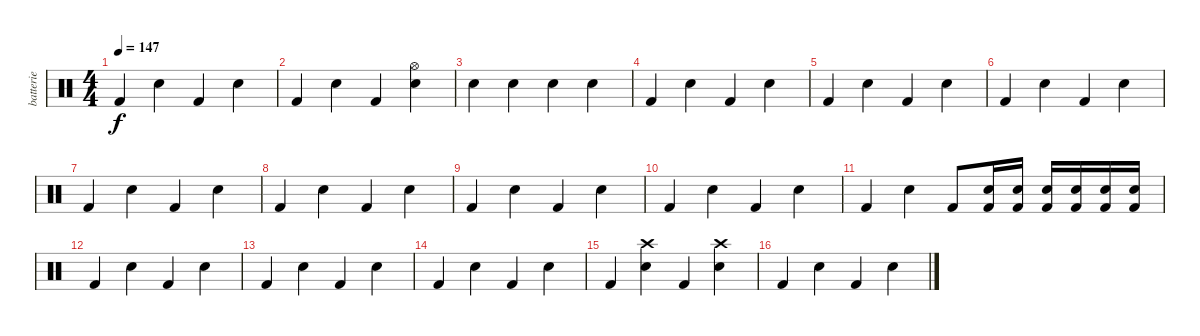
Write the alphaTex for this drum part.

\track ("batterie" "batterie") {instrument percussion}
\staff {score}
\articulation defaults
\ts (4 4)
\tempo 147
\clef neutral
\ks c "Kick (hit) 2".4{dy f} "Snare (hit) 2".4 "Kick (hit) 2".4 "Snare (hit) 2".4
|
"Kick (hit) 2".4 "Snare (hit) 2".4 "Kick (hit) 2".4 ("Snare (hit) 2" "Hi-Hat (open)").4 |
"Snare (hit) 2".4 "Snare (hit) 2".4 "Snare (hit) 2".4 "Snare (hit) 2".4 |
"Kick (hit) 2".4 "Snare (hit) 2".4 "Kick (hit) 2".4 "Snare (hit) 2".4 |
"Kick (hit) 2".4 "Snare (hit) 2".4 "Kick (hit) 2".4 "Snare (hit) 2".4 |
"Kick (hit) 2".4 "Snare (hit) 2".4 "Kick (hit) 2".4 "Snare (hit) 2".4 |
"Kick (hit) 2".4 "Snare (hit) 2".4 "Kick (hit) 2".4 "Snare (hit) 2".4 |
"Kick (hit) 2".4 "Snare (hit) 2".4 "Kick (hit) 2".4 "Snare (hit) 2".4 |
"Kick (hit) 2".4 "Snare (hit) 2".4 "Kick (hit) 2".4 "Snare (hit) 2".4 |
"Kick (hit) 2".4 "Snare (hit) 2".4 "Kick (hit) 2".4 "Snare (hit) 2".4 |
"Kick (hit) 2".4 "Snare (hit) 2".4 "Kick (hit) 2".8 ("Snare (hit) 2" "Kick (hit) 2").16 ("Snare (hit) 2" "Kick (hit) 2").16 ("Snare (hit) 2" "Kick (hit) 2").16 ("Snare (hit) 2" "Kick (hit) 2").16 ("Snare (hit) 2" "Kick (hit) 2").16 ("Snare (hit) 2" "Kick (hit) 2").16 |
"Kick (hit) 2".4 "Snare (hit) 2".4 "Kick (hit) 2".4 "Snare (hit) 2".4 |
"Kick (hit) 2".4 "Snare (hit) 2".4 "Kick (hit) 2".4 "Snare (hit) 2".4 |
"Kick (hit) 2".4 "Snare (hit) 2".4 "Kick (hit) 2".4 "Snare (hit) 2".4 |
"Kick (hit) 2".4 ("Snare (hit) 2" "Crash high (hit)").4 "Kick (hit) 2".4 ("Snare (hit) 2" "Crash high (hit)").4 |
"Kick (hit) 2".4 "Snare (hit) 2".4 "Kick (hit) 2".4 "Snare (hit) 2".4
